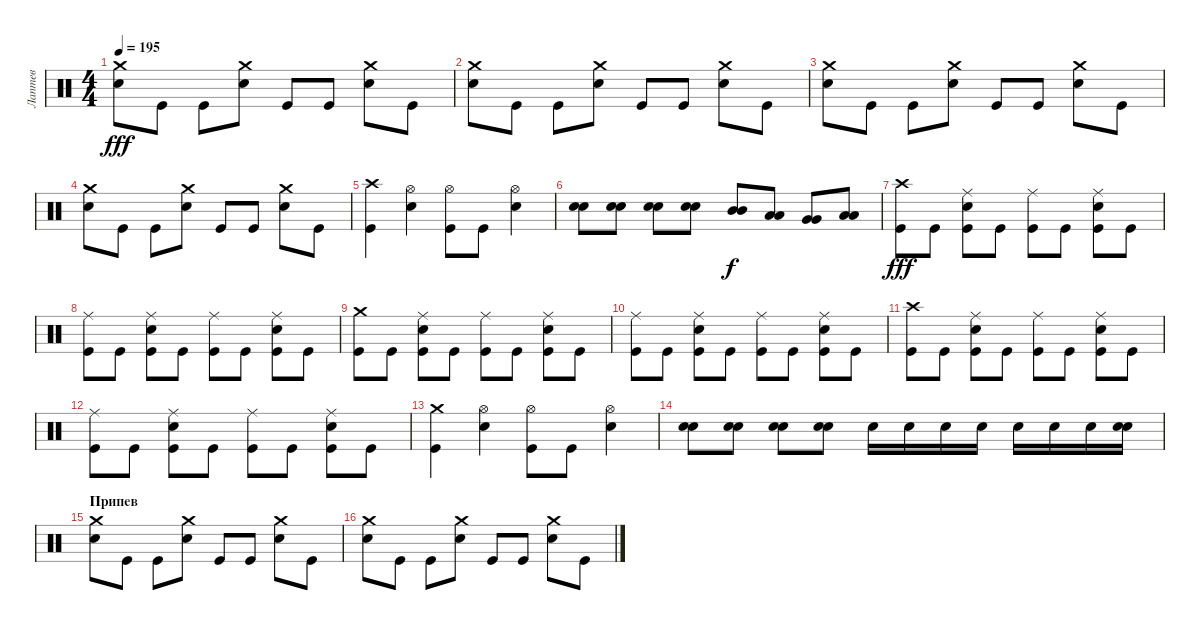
\track ("Лаптев" "Лаптев") {instrument percussion}
\staff {score}
\articulation defaults
\ts (4 4)
\tempo 195
\clef neutral
\ks c
("Crash medium (hit)" "Electric Snare (hit)").8{dy fff} "Kick (hit)".8 "Kick (hit)".8 ("Crash medium (hit)" "Electric Snare (hit)").8 "Kick (hit)".8 "Kick (hit)".8 ("Crash medium (hit)" "Electric Snare (hit)").8 "Kick (hit)".8 |
("Crash medium (hit)" "Electric Snare (hit)").8 "Kick (hit)".8 "Kick (hit)".8 ("Crash medium (hit)" "Electric Snare (hit)").8 "Kick (hit)".8 "Kick (hit)".8 ("Crash medium (hit)" "Electric Snare (hit)").8 "Kick (hit)".8 |
("Crash medium (hit)" "Electric Snare (hit)").8 "Kick (hit)".8 "Kick (hit)".8 ("Crash medium (hit)" "Electric Snare (hit)").8 "Kick (hit)".8 "Kick (hit)".8 ("Crash medium (hit)" "Electric Snare (hit)").8 "Kick (hit)".8 |
("Crash medium (hit)" "Electric Snare (hit)").8 "Kick (hit)".8 "Kick (hit)".8 ("Crash medium (hit)" "Electric Snare (hit)").8 "Kick (hit)".8 "Kick (hit)".8 ("Crash medium (hit)" "Electric Snare (hit)").8 "Kick (hit)".8 |
("Crash high (hit)" "Kick (hit)").4 ("Hi-Hat (open)" "Electric Snare (hit)").4 ("Hi-Hat (open)" "Kick (hit)").8 "Kick (hit)".8 ("Hi-Hat (open)" "Electric Snare (hit)").4 |
("Electric Snare (hit)" "Electric Snare (hit)").8 ("Electric Snare (hit)" "Electric Snare (hit)").8 ("Electric Snare (hit)" "Electric Snare (hit)").8 ("Electric Snare (hit)" "Electric Snare (hit)").8 ("Mid Tom (hit)" "Mid Tom (hit)").8{dy f} ("Low Tom (hit)" "Low Tom (hit)").8 ("Very Low Tom (hit)" "Very Low Tom (hit)").8 ("Low Floor Tom (hit)" "Low Floor Tom (hit)").8 |
("Crash high (hit)" "Kick (hit)").8{dy fff} "Kick (hit)".8 ("Ride (middle)" "Electric Snare (hit)" "Kick (hit)").8 "Kick (hit)".8 ("Ride (middle)" "Kick (hit)").8 "Kick (hit)".8 ("Ride (middle)" "Electric Snare (hit)" "Kick (hit)").8 "Kick (hit)".8 |
("Ride (middle)" "Kick (hit)").8 "Kick (hit)".8 ("Ride (middle)" "Electric Snare (hit)" "Kick (hit)").8 "Kick (hit)".8 ("Ride (middle)" "Kick (hit)").8 "Kick (hit)".8 ("Ride (middle)" "Electric Snare (hit)" "Kick (hit)").8 "Kick (hit)".8 |
("Crash medium (hit)" "Kick (hit)").8 "Kick (hit)".8 ("Ride (middle)" "Electric Snare (hit)" "Kick (hit)").8 "Kick (hit)".8 ("Ride (middle)" "Kick (hit)").8 "Kick (hit)".8 ("Ride (middle)" "Electric Snare (hit)" "Kick (hit)").8 "Kick (hit)".8 |
("Ride (middle)" "Kick (hit)").8 "Kick (hit)".8 ("Ride (middle)" "Electric Snare (hit)" "Kick (hit)").8 "Kick (hit)".8 ("Ride (middle)" "Kick (hit)").8 "Kick (hit)".8 ("Ride (middle)" "Electric Snare (hit)" "Kick (hit)").8 "Kick (hit)".8 |
("Crash high (hit)" "Kick (hit)").8 "Kick (hit)".8 ("Ride (middle)" "Electric Snare (hit)" "Kick (hit)").8 "Kick (hit)".8 ("Ride (middle)" "Kick (hit)").8 "Kick (hit)".8 ("Ride (middle)" "Electric Snare (hit)" "Kick (hit)").8 "Kick (hit)".8 |
("Ride (middle)" "Kick (hit)").8 "Kick (hit)".8 ("Ride (middle)" "Electric Snare (hit)" "Kick (hit)").8 "Kick (hit)".8 ("Ride (middle)" "Kick (hit)").8 "Kick (hit)".8 ("Ride (middle)" "Electric Snare (hit)" "Kick (hit)").8 "Kick (hit)".8 |
("Crash medium (hit)" "Kick (hit)").4 ("Hi-Hat (open)" "Electric Snare (hit)").4 ("Hi-Hat (open)" "Kick (hit)").8 "Kick (hit)".8 ("Hi-Hat (open)" "Electric Snare (hit)").4 |
("Electric Snare (hit)" "Electric Snare (hit)").8 ("Electric Snare (hit)" "Electric Snare (hit)").8 ("Electric Snare (hit)" "Electric Snare (hit)").8 ("Electric Snare (hit)" "Electric Snare (hit)").8 "Electric Snare (hit)".16 "Electric Snare (hit)".16 "Electric Snare (hit)".16 "Electric Snare (hit)".16 "Electric Snare (hit)".16 "Electric Snare (hit)".16 "Electric Snare (hit)".16 ("Electric Snare (hit)" "Electric Snare (hit)").16 |
\section ("" "Припев")
("Crash medium (hit)" "Electric Snare (hit)").8 "Kick (hit)".8 "Kick (hit)".8 ("Crash medium (hit)" "Electric Snare (hit)").8 "Kick (hit)".8 "Kick (hit)".8 ("Crash medium (hit)" "Electric Snare (hit)").8 "Kick (hit)".8 |
("Crash medium (hit)" "Electric Snare (hit)").8 "Kick (hit)".8 "Kick (hit)".8 ("Crash medium (hit)" "Electric Snare (hit)").8 "Kick (hit)".8 "Kick (hit)".8 ("Crash medium (hit)" "Electric Snare (hit)").8 "Kick (hit)".8
